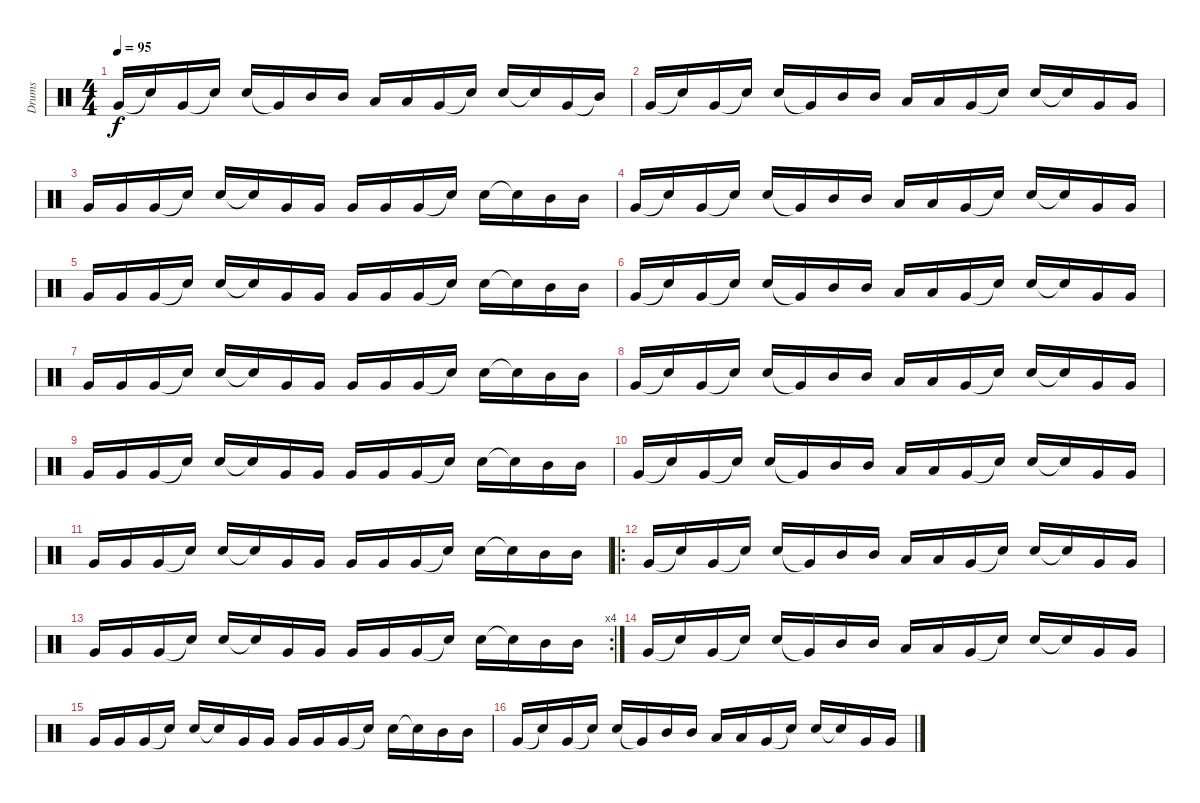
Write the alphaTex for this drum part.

\track ("Drums" "Drums") {instrument percussion}
\staff {score}
\articulation defaults
\ts (4 4)
\tempo 95
\clef neutral
\ks c "Very Low Tom (hit)".16{dy f} "Snare (hit)"{t}.16 "Very Low Tom (hit)".16 "Snare (hit)"{t}.16 "Snare (hit) 2".16 "Very Low Tom (hit)"{t}.16 "Mid Tom (hit)".16 "Mid Tom (hit)".16 "Low Tom (hit)".16 "Low Tom (hit)".16 "Very Low Tom (hit)".16 "Snare (hit)"{t}.16 "Snare (hit) 2".16 "Snare (hit)"{t}.16 "Very Low Tom (hit)".16 "Mid Tom (hit)"{t}.16
|
"Very Low Tom (hit)".16 "Snare (hit)"{t}.16 "Very Low Tom (hit)".16 "Snare (hit)"{t}.16 "Snare (hit) 2".16 "Very Low Tom (hit)"{t}.16 "Mid Tom (hit)".16 "Mid Tom (hit)".16 "Low Tom (hit)".16 "Low Tom (hit)".16 "Very Low Tom (hit)".16 "Snare (hit)"{t}.16 "Snare (hit) 2".16 "Snare (hit)"{t}.16 "Very Low Tom (hit)".16 "Very Low Tom (hit)".16 |
"Very Low Tom (hit)".16 "Very Low Tom (hit)".16 "Very Low Tom (hit)".16 "Snare (hit)"{t}.16 "Snare (hit) 2".16 "Snare (hit)"{t}.16 "Very Low Tom (hit)".16 "Very Low Tom (hit)".16 "Very Low Tom (hit)".16 "Very Low Tom (hit)".16 "Very Low Tom (hit)".16 "Snare (hit)"{t}.16 "Snare (hit) 2".16 "Snare (hit)"{t}.16 "Mid Tom (hit)".16 "Mid Tom (hit)".16 |
"Very Low Tom (hit)".16 "Snare (hit)"{t}.16 "Very Low Tom (hit)".16 "Snare (hit)"{t}.16 "Snare (hit) 2".16 "Very Low Tom (hit)"{t}.16 "Mid Tom (hit)".16 "Mid Tom (hit)".16 "Low Tom (hit)".16 "Low Tom (hit)".16 "Very Low Tom (hit)".16 "Snare (hit)"{t}.16 "Snare (hit) 2".16 "Snare (hit)"{t}.16 "Very Low Tom (hit)".16 "Very Low Tom (hit)".16 |
"Very Low Tom (hit)".16 "Very Low Tom (hit)".16 "Very Low Tom (hit)".16 "Snare (hit)"{t}.16 "Snare (hit) 2".16 "Snare (hit)"{t}.16 "Very Low Tom (hit)".16 "Very Low Tom (hit)".16 "Very Low Tom (hit)".16 "Very Low Tom (hit)".16 "Very Low Tom (hit)".16 "Snare (hit)"{t}.16 "Snare (hit) 2".16 "Snare (hit)"{t}.16 "Mid Tom (hit)".16 "Mid Tom (hit)".16 |
"Very Low Tom (hit)".16 "Snare (hit)"{t}.16 "Very Low Tom (hit)".16 "Snare (hit)"{t}.16 "Snare (hit) 2".16 "Very Low Tom (hit)"{t}.16 "Mid Tom (hit)".16 "Mid Tom (hit)".16 "Low Tom (hit)".16 "Low Tom (hit)".16 "Very Low Tom (hit)".16 "Snare (hit)"{t}.16 "Snare (hit) 2".16 "Snare (hit)"{t}.16 "Very Low Tom (hit)".16 "Very Low Tom (hit)".16 |
"Very Low Tom (hit)".16 "Very Low Tom (hit)".16 "Very Low Tom (hit)".16 "Snare (hit)"{t}.16 "Snare (hit) 2".16 "Snare (hit)"{t}.16 "Very Low Tom (hit)".16 "Very Low Tom (hit)".16 "Very Low Tom (hit)".16 "Very Low Tom (hit)".16 "Very Low Tom (hit)".16 "Snare (hit)"{t}.16 "Snare (hit) 2".16 "Snare (hit)"{t}.16 "Mid Tom (hit)".16 "Mid Tom (hit)".16 |
"Very Low Tom (hit)".16 "Snare (hit)"{t}.16 "Very Low Tom (hit)".16 "Snare (hit)"{t}.16 "Snare (hit) 2".16 "Very Low Tom (hit)"{t}.16 "Mid Tom (hit)".16 "Mid Tom (hit)".16 "Low Tom (hit)".16 "Low Tom (hit)".16 "Very Low Tom (hit)".16 "Snare (hit)"{t}.16 "Snare (hit) 2".16 "Snare (hit)"{t}.16 "Very Low Tom (hit)".16 "Very Low Tom (hit)".16 |
"Very Low Tom (hit)".16 "Very Low Tom (hit)".16 "Very Low Tom (hit)".16 "Snare (hit)"{t}.16 "Snare (hit) 2".16 "Snare (hit)"{t}.16 "Very Low Tom (hit)".16 "Very Low Tom (hit)".16 "Very Low Tom (hit)".16 "Very Low Tom (hit)".16 "Very Low Tom (hit)".16 "Snare (hit)"{t}.16 "Snare (hit) 2".16 "Snare (hit)"{t}.16 "Mid Tom (hit)".16 "Mid Tom (hit)".16 |
"Very Low Tom (hit)".16 "Snare (hit)"{t}.16 "Very Low Tom (hit)".16 "Snare (hit)"{t}.16 "Snare (hit) 2".16 "Very Low Tom (hit)"{t}.16 "Mid Tom (hit)".16 "Mid Tom (hit)".16 "Low Tom (hit)".16 "Low Tom (hit)".16 "Very Low Tom (hit)".16 "Snare (hit)"{t}.16 "Snare (hit) 2".16 "Snare (hit)"{t}.16 "Very Low Tom (hit)".16 "Very Low Tom (hit)".16 |
"Very Low Tom (hit)".16 "Very Low Tom (hit)".16 "Very Low Tom (hit)".16 "Snare (hit)"{t}.16 "Snare (hit) 2".16 "Snare (hit)"{t}.16 "Very Low Tom (hit)".16 "Very Low Tom (hit)".16 "Very Low Tom (hit)".16 "Very Low Tom (hit)".16 "Very Low Tom (hit)".16 "Snare (hit)"{t}.16 "Snare (hit) 2".16 "Snare (hit)"{t}.16 "Mid Tom (hit)".16 "Mid Tom (hit)".16 |
\ro "Very Low Tom (hit)".16 "Snare (hit)"{t}.16 "Very Low Tom (hit)".16 "Snare (hit)"{t}.16 "Snare (hit) 2".16 "Very Low Tom (hit)"{t}.16 "Mid Tom (hit)".16 "Mid Tom (hit)".16 "Low Tom (hit)".16 "Low Tom (hit)".16 "Very Low Tom (hit)".16 "Snare (hit)"{t}.16 "Snare (hit) 2".16 "Snare (hit)"{t}.16 "Very Low Tom (hit)".16 "Very Low Tom (hit)".16
|
\rc 4 "Very Low Tom (hit)".16 "Very Low Tom (hit)".16 "Very Low Tom (hit)".16 "Snare (hit)"{t}.16 "Snare (hit) 2".16 "Snare (hit)"{t}.16 "Very Low Tom (hit)".16 "Very Low Tom (hit)".16 "Very Low Tom (hit)".16 "Very Low Tom (hit)".16 "Very Low Tom (hit)".16 "Snare (hit)"{t}.16 "Snare (hit) 2".16 "Snare (hit)"{t}.16 "Mid Tom (hit)".16 "Mid Tom (hit)".16
|
"Very Low Tom (hit)".16 "Snare (hit)"{t}.16 "Very Low Tom (hit)".16 "Snare (hit)"{t}.16 "Snare (hit) 2".16 "Very Low Tom (hit)"{t}.16 "Mid Tom (hit)".16 "Mid Tom (hit)".16 "Low Tom (hit)".16 "Low Tom (hit)".16 "Very Low Tom (hit)".16 "Snare (hit)"{t}.16 "Snare (hit) 2".16 "Snare (hit)"{t}.16 "Very Low Tom (hit)".16 "Very Low Tom (hit)".16 |
"Very Low Tom (hit)".16 "Very Low Tom (hit)".16 "Very Low Tom (hit)".16 "Snare (hit)"{t}.16 "Snare (hit) 2".16 "Snare (hit)"{t}.16 "Very Low Tom (hit)".16 "Very Low Tom (hit)".16 "Very Low Tom (hit)".16 "Very Low Tom (hit)".16 "Very Low Tom (hit)".16 "Snare (hit)"{t}.16 "Snare (hit) 2".16 "Snare (hit)"{t}.16 "Mid Tom (hit)".16 "Mid Tom (hit)".16 |
"Very Low Tom (hit)".16 "Snare (hit)"{t}.16 "Very Low Tom (hit)".16 "Snare (hit)"{t}.16 "Snare (hit) 2".16 "Very Low Tom (hit)"{t}.16 "Mid Tom (hit)".16 "Mid Tom (hit)".16 "Low Tom (hit)".16 "Low Tom (hit)".16 "Very Low Tom (hit)".16 "Snare (hit)"{t}.16 "Snare (hit) 2".16 "Snare (hit)"{t}.16 "Very Low Tom (hit)".16 "Very Low Tom (hit)".16
